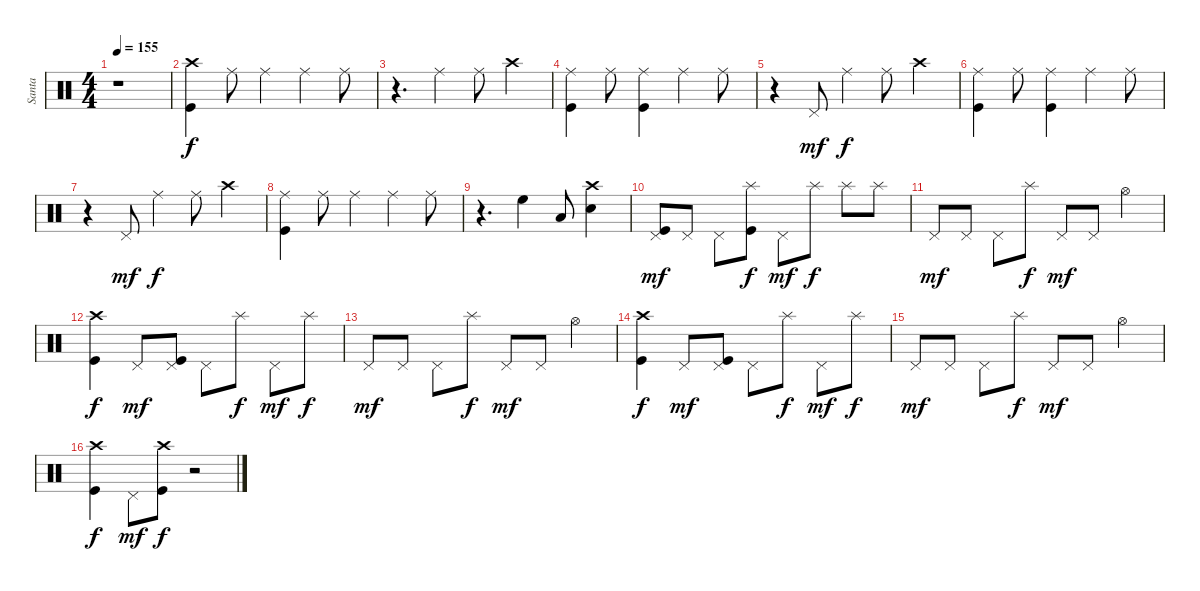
\track ("Santa" "Santa") {instrument percussion}
\staff {score}
\articulation defaults
\ts (4 4)
\tempo 155
\clef neutral
\ks c
r.1{dy f} |
("Kick (hit)" "Crash high (hit)").4 "Ride (middle)".8 "Ride (middle)".4 "Ride (middle)".4 "Ride (middle)".8 |
r.4{d} "Ride (middle)".4 "Ride (middle)".8 "Crash high (hit)".4 |
("Kick (hit)" "Ride (middle)").4 "Ride (middle)".8 ("Kick (hit)" "Ride (middle)").4 "Ride (middle)".4 "Ride (middle)".8 |
r.4 "Pedal Hi-Hat (hit)".8{dy mf} "Ride (middle)".4{dy f} "Ride (middle)".8 "Crash high (hit)".4 |
("Kick (hit)" "Ride (middle)").4 "Ride (middle)".8 ("Kick (hit)" "Ride (middle)").4 "Ride (middle)".4 "Ride (middle)".8 |
r.4 "Pedal Hi-Hat (hit)".8{dy mf} "Ride (middle)".4{dy f} "Ride (middle)".8 "Crash high (hit)".4 |
("Kick (hit)" "Ride (middle)").4 "Ride (middle)".8 "Ride (middle)".4 "Ride (middle)".4 "Ride (middle)".8 |
r.4{d} "High Floor Tom (hit)".4 "Low Tom (hit)".8 ("Snare (hit) 2" "Crash high (hit)").4 |
("Kick (hit)" "Pedal Hi-Hat (hit)").8{dy mf} "Pedal Hi-Hat (hit)".8 "Pedal Hi-Hat (hit)".8 ("Kick (hit)" "Splash (hit)").8{dy f} "Pedal Hi-Hat (hit)".8{dy mf} "Splash (hit)".8{dy f} "Splash (hit)".8 "Splash (hit)".8 |
"Pedal Hi-Hat (hit)".8{dy mf} "Pedal Hi-Hat (hit)".8 "Pedal Hi-Hat (hit)".8 "Splash (hit)".8{dy f} "Pedal Hi-Hat (hit)".8{dy mf} "Pedal Hi-Hat (hit)".8 "Hi-Hat (open)".4 |
("Kick (hit)" "Crash high (hit)").4{dy f} "Pedal Hi-Hat (hit)".8{dy mf} ("Kick (hit)" "Pedal Hi-Hat (hit)").8 "Pedal Hi-Hat (hit)".8 "Splash (hit)".8{dy f} "Pedal Hi-Hat (hit)".8{dy mf} "Splash (hit)".8{dy f} |
"Pedal Hi-Hat (hit)".8{dy mf} "Pedal Hi-Hat (hit)".8 "Pedal Hi-Hat (hit)".8 "Splash (hit)".8{dy f} "Pedal Hi-Hat (hit)".8{dy mf} "Pedal Hi-Hat (hit)".8 "Hi-Hat (open)".4 |
("Kick (hit)" "Crash high (hit)").4{dy f} "Pedal Hi-Hat (hit)".8{dy mf} ("Kick (hit)" "Pedal Hi-Hat (hit)").8 "Pedal Hi-Hat (hit)".8 "Splash (hit)".8{dy f} "Pedal Hi-Hat (hit)".8{dy mf} "Splash (hit)".8{dy f} |
"Pedal Hi-Hat (hit)".8{dy mf} "Pedal Hi-Hat (hit)".8 "Pedal Hi-Hat (hit)".8 "Splash (hit)".8{dy f} "Pedal Hi-Hat (hit)".8{dy mf} "Pedal Hi-Hat (hit)".8 "Hi-Hat (open)".4 |
("Kick (hit)" "Crash high (hit)").4{dy f} "Pedal Hi-Hat (hit)".8{dy mf} ("Kick (hit)" "Crash high (hit)").8{dy f} r.2
